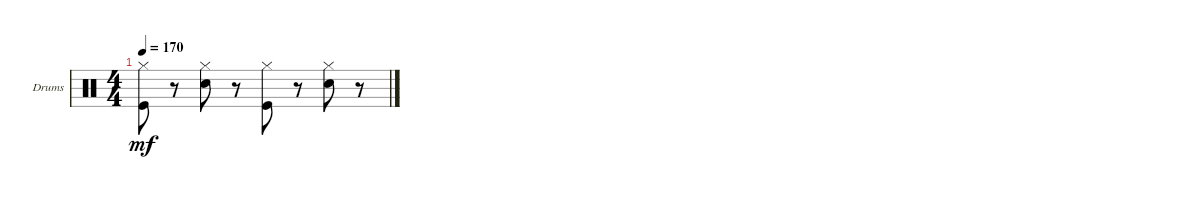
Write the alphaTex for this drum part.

\defaultSystemsLayout 4
\bracketExtendMode groupsimilarinstruments
\firstSystemTrackNameOrientation horizontal
\otherSystemsTrackNameOrientation horizontal
\track ("Drumkit" "Drums") {instrument percussion}
\staff {score}
\articulation defaults
\ts (4 4)
\tempo 170
\clef neutral
\ks c
("Kick (hit)" "Hi-Hat (closed)").8{dy mf} r.8 ("Snare (hit) 2" "Hi-Hat (closed)").8 r.8 ("Kick (hit)" "Hi-Hat (closed)").8 r.8 ("Snare (hit) 2" "Hi-Hat (closed)").8 r.8
